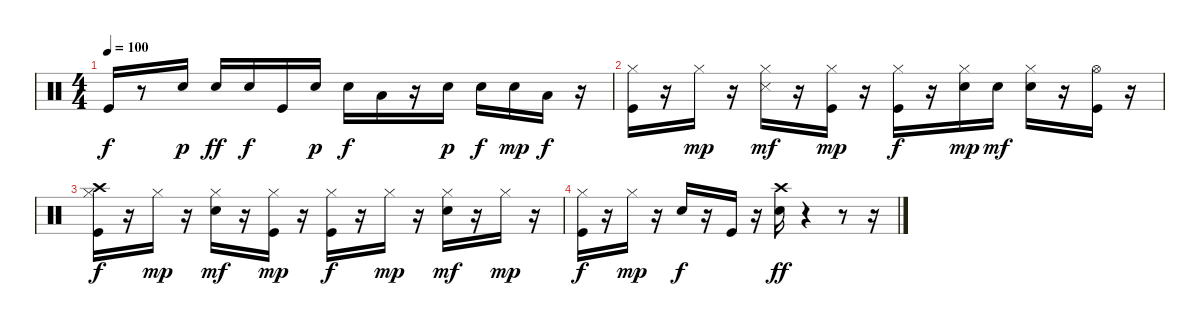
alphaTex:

\track "" {instrument percussion}
\staff {score}
\articulation defaults
\ts (4 4)
\tempo 100
\clef neutral
\ks c "Kick (hit)".16{dy f}
r.8 "Snare (hit) 2".16{dy p} "Snare (hit) 2".16{dy ff} "Snare (hit) 2".16{dy f} "Kick (hit)".16 "Snare (hit) 2".16{dy p} "Snare (hit) 2".16{dy f} "Low Tom (hit)".16 r.16 "Snare (hit) 2".16{dy p} "Snare (hit) 2".16{dy f} "Snare (hit) 2".16{dy mp} "Low Floor Tom (hit)".16{dy f} r.16 |
("Kick (hit)" "Hi-Hat (closed)").16 r.16 "Hi-Hat (closed)".16{dy mp} r.16 ("Hi-Hat (closed)" "Snare (side stick) 3").16{dy mf} r.16 ("Kick (hit)" "Hi-Hat (closed)").16{dy mp} r.16 ("Kick (hit)" "Hi-Hat (closed)").16{dy f} r.16 ("Snare (hit) 2" "Hi-Hat (closed)").16{dy mp} "Snare (hit) 2".16{dy mf} ("Snare (hit) 2" "Hi-Hat (closed)").16 r.16 ("Kick (hit)" "Hi-Hat (open)").16 r.16 |
("Kick (hit)" "Hi-Hat (closed)" "Crash high (hit)").16{dy f} r.16 "Hi-Hat (closed)".16{dy mp} r.16 ("Snare (hit) 2" "Hi-Hat (closed)").16{dy mf} r.16 ("Kick (hit)" "Hi-Hat (closed)").16{dy mp} r.16 ("Kick (hit)" "Hi-Hat (closed)").16{dy f} r.16 "Hi-Hat (closed)".16{dy mp} r.16 ("Snare (hit) 2" "Hi-Hat (closed)").16{dy mf} r.16 "Hi-Hat (closed)".16{dy mp} r.16 |
("Kick (hit)" "Hi-Hat (closed)").16{dy f} r.16 "Hi-Hat (closed)".16{dy mp} r.16 "Snare (hit) 2".16{dy f} r.16 "Kick (hit)".16 r.16 ("Snare (hit) 2" "Crash high (hit)").16{dy ff} r.4 r.8 r.16
